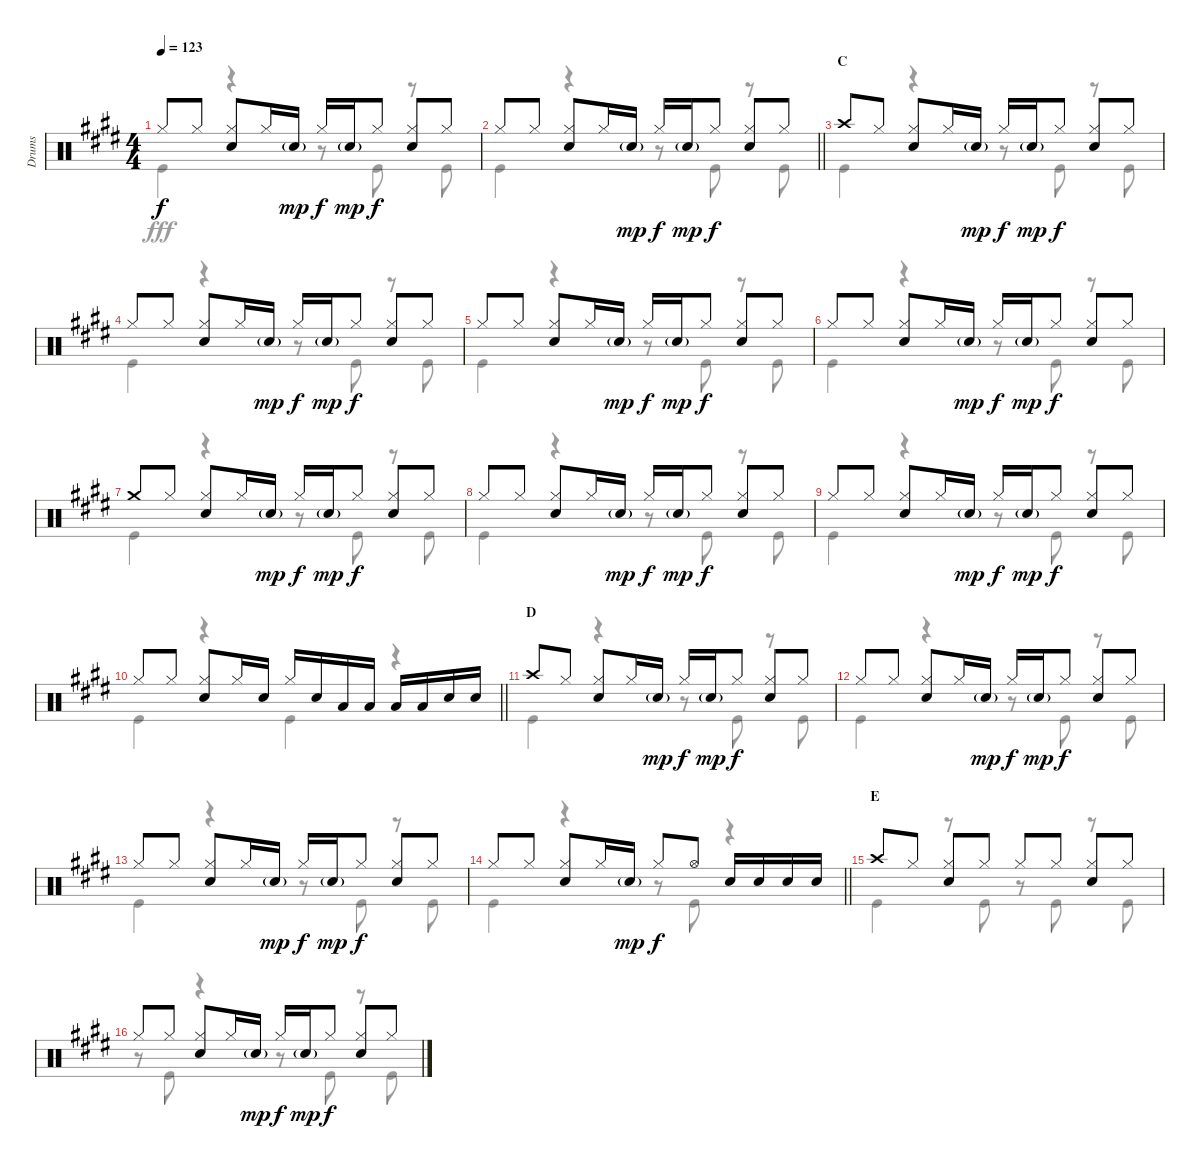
\track ("Drums" "Drums") {instrument percussion}
\staff {score}
\articulation defaults
\voice
\ts (4 4)
\tempo 123
\clef neutral
\ks e "Hi-Hat (closed)".8{dy f} "Hi-Hat (closed)".8
("Hi-Hat (closed)" "Snare (hit) 2").8 "Hi-Hat (closed)".16 "Snare (hit) 2"{g}.16{dy mp} "Hi-Hat (closed)".16{dy f} "Snare (hit) 2"{g}.16{dy mp} "Hi-Hat (closed)".8{dy f} ("Hi-Hat (closed)" "Snare (hit) 2").8 "Hi-Hat (closed)".8 |
\barLineRight lightlight "Hi-Hat (closed)".8 "Hi-Hat (closed)".8
("Hi-Hat (closed)" "Snare (hit) 2").8 "Hi-Hat (closed)".16 "Snare (hit) 2"{g}.16{dy mp} "Hi-Hat (closed)".16{dy f} "Snare (hit) 2"{g}.16{dy mp} "Hi-Hat (closed)".8{dy f} ("Hi-Hat (closed)" "Snare (hit) 2").8 "Hi-Hat (closed)".8 |
\section ("" "C")
"Crash high (hit)".8 "Hi-Hat (closed)".8 ("Hi-Hat (closed)" "Snare (hit) 2").8 "Hi-Hat (closed)".16 "Snare (hit) 2"{g}.16{dy mp} "Hi-Hat (closed)".16{dy f} "Snare (hit) 2"{g}.16{dy mp} "Hi-Hat (closed)".8{dy f} ("Hi-Hat (closed)" "Snare (hit) 2").8 "Hi-Hat (closed)".8 |
"Hi-Hat (closed)".8 "Hi-Hat (closed)".8 ("Hi-Hat (closed)" "Snare (hit) 2").8 "Hi-Hat (closed)".16 "Snare (hit) 2"{g}.16{dy mp} "Hi-Hat (closed)".16{dy f} "Snare (hit) 2"{g}.16{dy mp} "Hi-Hat (closed)".8{dy f} ("Hi-Hat (closed)" "Snare (hit) 2").8 "Hi-Hat (closed)".8 |
"Hi-Hat (closed)".8 "Hi-Hat (closed)".8 ("Hi-Hat (closed)" "Snare (hit) 2").8 "Hi-Hat (closed)".16 "Snare (hit) 2"{g}.16{dy mp} "Hi-Hat (closed)".16{dy f} "Snare (hit) 2"{g}.16{dy mp} "Hi-Hat (closed)".8{dy f} ("Hi-Hat (closed)" "Snare (hit) 2").8 "Hi-Hat (closed)".8 |
"Hi-Hat (closed)".8 "Hi-Hat (closed)".8 ("Hi-Hat (closed)" "Snare (hit) 2").8 "Hi-Hat (closed)".16 "Snare (hit) 2"{g}.16{dy mp} "Hi-Hat (closed)".16{dy f} "Snare (hit) 2"{g}.16{dy mp} "Hi-Hat (closed)".8{dy f} ("Hi-Hat (closed)" "Snare (hit) 2").8 "Hi-Hat (closed)".8 |
"Crash medium (hit)".8 "Hi-Hat (closed)".8 ("Hi-Hat (closed)" "Snare (hit) 2").8 "Hi-Hat (closed)".16 "Snare (hit) 2"{g}.16{dy mp} "Hi-Hat (closed)".16{dy f} "Snare (hit) 2"{g}.16{dy mp} "Hi-Hat (closed)".8{dy f} ("Hi-Hat (closed)" "Snare (hit) 2").8 "Hi-Hat (closed)".8 |
"Hi-Hat (closed)".8 "Hi-Hat (closed)".8 ("Hi-Hat (closed)" "Snare (hit) 2").8 "Hi-Hat (closed)".16 "Snare (hit) 2"{g}.16{dy mp} "Hi-Hat (closed)".16{dy f} "Snare (hit) 2"{g}.16{dy mp} "Hi-Hat (closed)".8{dy f} ("Hi-Hat (closed)" "Snare (hit) 2").8 "Hi-Hat (closed)".8 |
"Hi-Hat (closed)".8 "Hi-Hat (closed)".8 ("Hi-Hat (closed)" "Snare (hit) 2").8 "Hi-Hat (closed)".16 "Snare (hit) 2"{g}.16{dy mp} "Hi-Hat (closed)".16{dy f} "Snare (hit) 2"{g}.16{dy mp} "Hi-Hat (closed)".8{dy f} ("Hi-Hat (closed)" "Snare (hit) 2").8 "Hi-Hat (closed)".8 |
\barLineRight lightlight "Hi-Hat (closed)".8 "Hi-Hat (closed)".8
("Hi-Hat (closed)" "Snare (hit) 2").8 "Hi-Hat (closed)".16 "Snare (hit) 2".16 "Hi-Hat (closed)".16 "Snare (hit) 2".16 "Low Tom (hit)".16 "Low Tom (hit)".16 "Low Tom (hit)".16 "Low Tom (hit)".16 "Snare (hit) 2".16 "Snare (hit) 2".16 |
\section ("" "D")
"Crash high (hit)".8 "Hi-Hat (closed)".8 ("Hi-Hat (closed)" "Snare (hit) 2").8 "Hi-Hat (closed)".16 "Snare (hit) 2"{g}.16{dy mp} "Hi-Hat (closed)".16{dy f} "Snare (hit) 2"{g}.16{dy mp} "Hi-Hat (closed)".8{dy f} ("Hi-Hat (closed)" "Snare (hit) 2").8 "Hi-Hat (closed)".8 |
"Hi-Hat (closed)".8 "Hi-Hat (closed)".8 ("Hi-Hat (closed)" "Snare (hit) 2").8 "Hi-Hat (closed)".16 "Snare (hit) 2"{g}.16{dy mp} "Hi-Hat (closed)".16{dy f} "Snare (hit) 2"{g}.16{dy mp} "Hi-Hat (closed)".8{dy f} ("Hi-Hat (closed)" "Snare (hit) 2").8 "Hi-Hat (closed)".8 |
"Hi-Hat (closed)".8 "Hi-Hat (closed)".8 ("Hi-Hat (closed)" "Snare (hit) 2").8 "Hi-Hat (closed)".16 "Snare (hit) 2"{g}.16{dy mp} "Hi-Hat (closed)".16{dy f} "Snare (hit) 2"{g}.16{dy mp} "Hi-Hat (closed)".8{dy f} ("Hi-Hat (closed)" "Snare (hit) 2").8 "Hi-Hat (closed)".8 |
\barLineRight lightlight "Hi-Hat (closed)".8 "Hi-Hat (closed)".8
("Hi-Hat (closed)" "Snare (hit) 2").8 "Hi-Hat (closed)".16 "Snare (hit) 2"{g}.16{dy mp} "Hi-Hat (closed)".8{dy f} "Hi-Hat (open)".8 "Snare (hit) 2".16 "Snare (hit) 2".16 "Snare (hit) 2".16 "Snare (hit) 2".16 |
\section ("" "E")
"Crash high (hit)".8 "Hi-Hat (closed)".8 ("Hi-Hat (closed)" "Snare (hit) 2").8 "Hi-Hat (closed)".8 "Hi-Hat (closed)".8 "Hi-Hat (closed)".8 ("Hi-Hat (closed)" "Snare (hit) 2").8 "Hi-Hat (closed)".8 |
"Hi-Hat (closed)".8 "Hi-Hat (closed)".8 ("Hi-Hat (closed)" "Snare (hit) 2").8 "Hi-Hat (closed)".16 "Snare (hit) 2"{g}.16{dy mp} "Hi-Hat (closed)".16{dy f} "Snare (hit) 2"{g}.16{dy mp} "Hi-Hat (closed)".8{dy f} ("Hi-Hat (closed)" "Snare (hit) 2").8 "Hi-Hat (closed)".8
\voice
\clef neutral
\ottava regular
\simile none
\ks e "Kick (hit)".4{dy fff}
r.4 r.8 "Kick (hit)".8 r.8 "Kick (hit)".8 |
\barLineRight lightlight "Kick (hit)".4
r.4 r.8 "Kick (hit)".8 r.8 "Kick (hit)".8 |
"Kick (hit)".4 r.4 r.8 "Kick (hit)".8 r.8 "Kick (hit)".8 |
"Kick (hit)".4 r.4 r.8 "Kick (hit)".8 r.8 "Kick (hit)".8 |
"Kick (hit)".4 r.4 r.8 "Kick (hit)".8 r.8 "Kick (hit)".8 |
"Kick (hit)".4 r.4 r.8 "Kick (hit)".8 r.8 "Kick (hit)".8 |
"Kick (hit)".4 r.4 r.8 "Kick (hit)".8 r.8 "Kick (hit)".8 |
"Kick (hit)".4 r.4 r.8 "Kick (hit)".8 r.8 "Kick (hit)".8 |
"Kick (hit)".4 r.4 r.8 "Kick (hit)".8 r.8 "Kick (hit)".8 |
\barLineRight lightlight "Kick (hit)".4
r.4 "Kick (hit)".4 r.4 |
"Kick (hit)".4 r.4 r.8 "Kick (hit)".8 r.8 "Kick (hit)".8 |
"Kick (hit)".4 r.4 r.8 "Kick (hit)".8 r.8 "Kick (hit)".8 |
"Kick (hit)".4 r.4 r.8 "Kick (hit)".8 r.8 "Kick (hit)".8 |
\barLineRight lightlight "Kick (hit)".4
r.4 r.8 "Kick (hit)".8 r.4 |
"Kick (hit)".4 r.8 "Kick (hit)".8 r.8 "Kick (hit)".8 r.8 "Kick (hit)".8 |
r.8 "Kick (hit)".8 r.4 r.8 "Kick (hit)".8 r.8 "Kick (hit)".8
